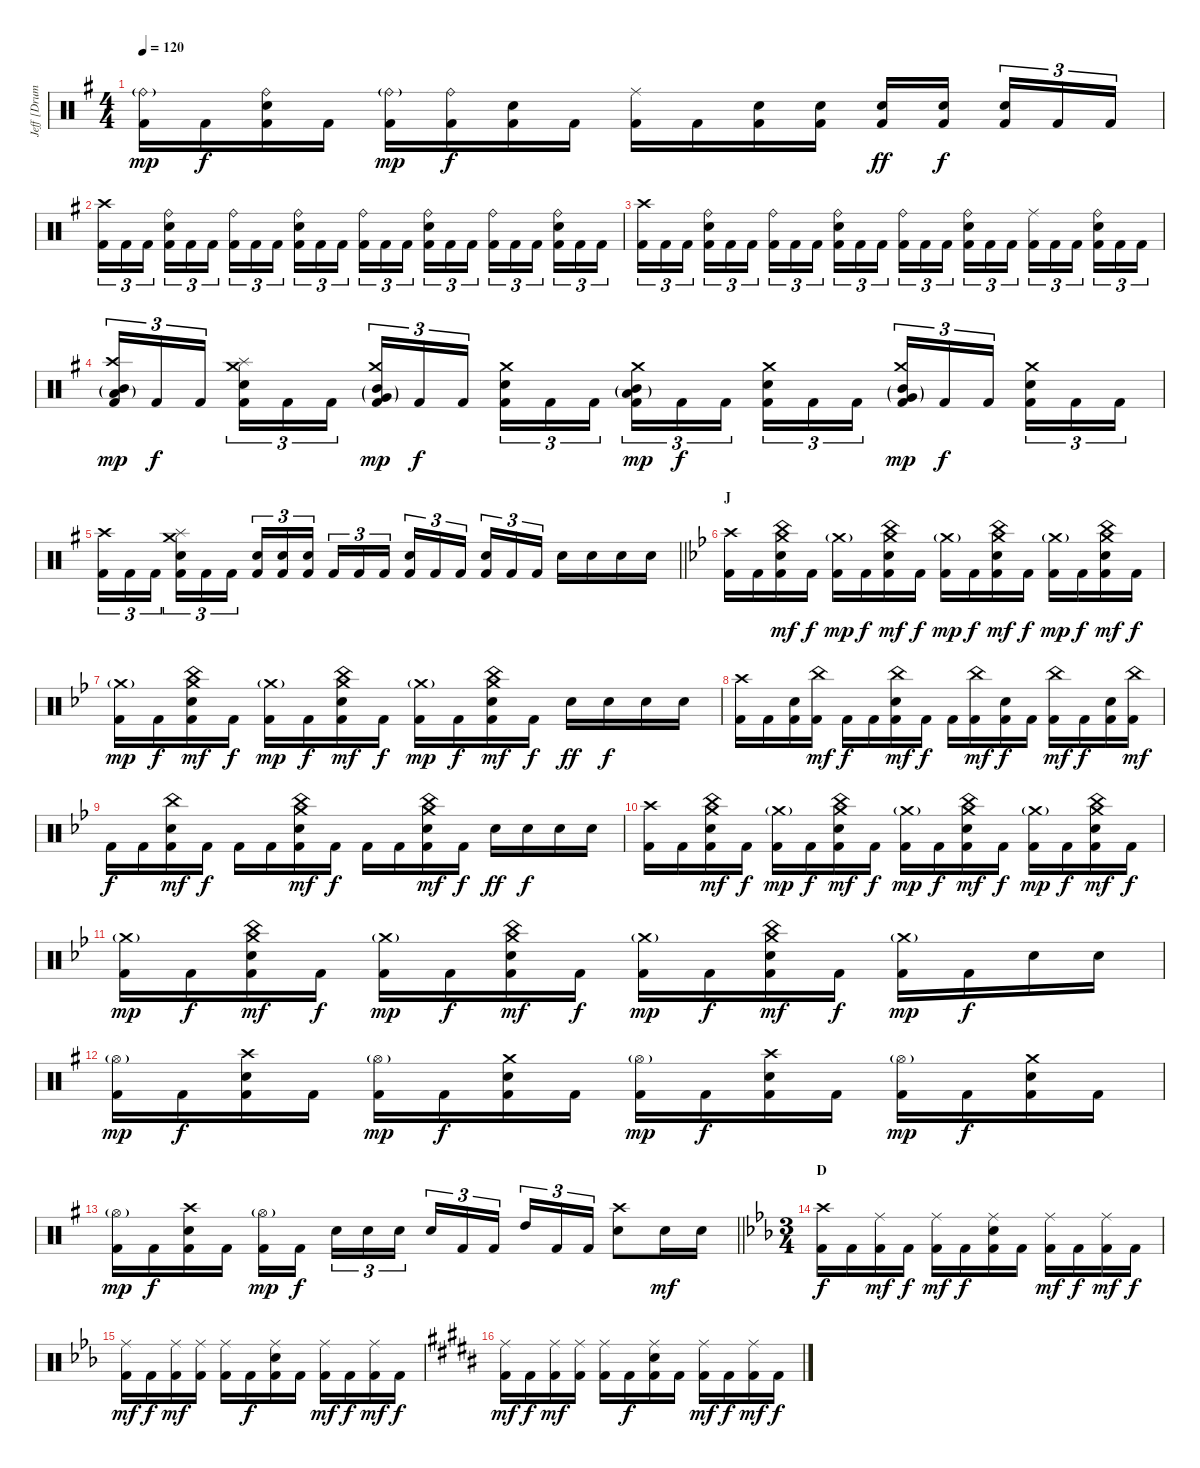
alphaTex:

\track ("Jeff [Drums]" "Jeff [Drum") {instrument percussion}
\staff {score}
\articulation defaults
\ts (4 4)
\tempo 120
\clef neutral
\ks g
("Ride (bell)"{g} "Kick (hit) 2").16{dy mp} "Kick (hit) 2".16{dy f} ("Ride (bell)" "Electric Snare (hit)" "Kick (hit) 2").16 "Kick (hit) 2".16 ("Ride (bell)"{g} "Kick (hit) 2").16{dy mp} ("Ride (bell)" "Kick (hit) 2").16{dy f} ("Electric Snare (hit)" "Kick (hit) 2").16 "Kick (hit) 2".16 ("Ride (middle)" "Kick (hit) 2").16 "Kick (hit) 2".16 ("Electric Snare (hit)" "Kick (hit) 2").16 ("Electric Snare (hit)" "Kick (hit) 2").16 ("Electric Snare (hit)" "Kick (hit) 2").16{dy ff} ("Electric Snare (hit)" "Kick (hit) 2").16{dy f beam splitsecondary} ("Electric Snare (hit)" "Kick (hit) 2").16{tu (3 2)} "Kick (hit) 2".16{tu (3 2)} "Kick (hit) 2".16{tu (3 2)} |
("Crash high (hit)" "Kick (hit) 2").16{tu (3 2)} "Kick (hit) 2".16{tu (3 2)} "Kick (hit) 2".16{tu (3 2) beam splitsecondary} ("Ride (bell)" "Electric Snare (hit)" "Kick (hit) 2").16{tu (3 2)} "Kick (hit) 2".16{tu (3 2)} "Kick (hit) 2".16{tu (3 2)} ("Ride (bell)" "Kick (hit) 2").16{tu (3 2)} "Kick (hit) 2".16{tu (3 2)} "Kick (hit) 2".16{tu (3 2) beam splitsecondary} ("Ride (bell)" "Electric Snare (hit)" "Kick (hit) 2").16{tu (3 2)} "Kick (hit) 2".16{tu (3 2)} "Kick (hit) 2".16{tu (3 2)} ("Ride (bell)" "Kick (hit) 2").16{tu (3 2)} "Kick (hit) 2".16{tu (3 2)} "Kick (hit) 2".16{tu (3 2) beam splitsecondary} ("Ride (bell)" "Electric Snare (hit)" "Kick (hit) 2").16{tu (3 2)} "Kick (hit) 2".16{tu (3 2)} "Kick (hit) 2".16{tu (3 2)} ("Ride (bell)" "Kick (hit) 2").16{tu (3 2)} "Kick (hit) 2".16{tu (3 2)} "Kick (hit) 2".16{tu (3 2) beam splitsecondary} ("Ride (bell)" "Electric Snare (hit)" "Kick (hit) 2").16{tu (3 2)} "Kick (hit) 2".16{tu (3 2)} "Kick (hit) 2".16{tu (3 2)} |
("Crash high (hit)" "Kick (hit) 2").16{tu (3 2)} "Kick (hit) 2".16{tu (3 2)} "Kick (hit) 2".16{tu (3 2) beam splitsecondary} ("Ride (bell)" "Electric Snare (hit)" "Kick (hit) 2").16{tu (3 2)} "Kick (hit) 2".16{tu (3 2)} "Kick (hit) 2".16{tu (3 2)} ("Ride (bell)" "Kick (hit) 2").16{tu (3 2)} "Kick (hit) 2".16{tu (3 2)} "Kick (hit) 2".16{tu (3 2) beam splitsecondary} ("Ride (bell)" "Electric Snare (hit)" "Kick (hit) 2").16{tu (3 2)} "Kick (hit) 2".16{tu (3 2)} "Kick (hit) 2".16{tu (3 2)} ("Ride (bell)" "Kick (hit) 2").16{tu (3 2)} "Kick (hit) 2".16{tu (3 2)} "Kick (hit) 2".16{tu (3 2) beam splitsecondary} ("Ride (bell)" "Electric Snare (hit)" "Kick (hit) 2").16{tu (3 2)} "Kick (hit) 2".16{tu (3 2)} "Kick (hit) 2".16{tu (3 2)} ("Ride (middle)" "Kick (hit) 2").16{tu (3 2)} "Kick (hit) 2".16{tu (3 2)} "Kick (hit) 2".16{tu (3 2) beam splitsecondary} ("Ride (bell)" "Electric Snare (hit)" "Kick (hit) 2").16{tu (3 2)} "Kick (hit) 2".16{tu (3 2)} "Kick (hit) 2".16{tu (3 2)} |
("Crash high (hit)" "Mid Tom (hit)"{g} "Low Tom (hit)"{g} "Kick (hit) 2").16{tu (3 2) dy mp} "Kick (hit) 2".16{tu (3 2) dy f} "Kick (hit) 2".16{tu (3 2) beam splitsecondary} ("Crash medium (hit)" "Splash (hit)" "Electric Snare (hit)" "Kick (hit) 2").16{tu (3 2)} "Kick (hit) 2".16{tu (3 2)} "Kick (hit) 2".16{tu (3 2)} ("Crash medium (hit)" "Mid Tom (hit)"{g} "Very Low Tom (hit)"{g} "Kick (hit) 2").16{tu (3 2) dy mp} "Kick (hit) 2".16{tu (3 2) dy f} "Kick (hit) 2".16{tu (3 2) beam splitsecondary} ("Crash medium (hit)" "Electric Snare (hit)" "Kick (hit) 2").16{tu (3 2)} "Kick (hit) 2".16{tu (3 2)} "Kick (hit) 2".16{tu (3 2)} ("Crash medium (hit)" "Mid Tom (hit)"{g} "Low Tom (hit)"{g} "Kick (hit) 2").16{tu (3 2) dy mp} "Kick (hit) 2".16{tu (3 2) dy f} "Kick (hit) 2".16{tu (3 2) beam splitsecondary} ("Crash medium (hit)" "Electric Snare (hit)" "Kick (hit) 2").16{tu (3 2)} "Kick (hit) 2".16{tu (3 2)} "Kick (hit) 2".16{tu (3 2)} ("Crash medium (hit)" "Mid Tom (hit)"{g} "Very Low Tom (hit)"{g} "Kick (hit) 2").16{tu (3 2) dy mp} "Kick (hit) 2".16{tu (3 2) dy f} "Kick (hit) 2".16{tu (3 2) beam splitsecondary} ("Crash medium (hit)" "Electric Snare (hit)" "Kick (hit) 2").16{tu (3 2)} "Kick (hit) 2".16{tu (3 2)} "Kick (hit) 2".16{tu (3 2)} |
\barLineRight lightlight
("Crash high (hit)" "Kick (hit) 2").16{tu (3 2)} "Kick (hit) 2".16{tu (3 2)} "Kick (hit) 2".16{tu (3 2) beam splitsecondary} ("Crash medium (hit)" "Splash (hit)" "Electric Snare (hit)" "Kick (hit) 2").16{tu (3 2)} "Kick (hit) 2".16{tu (3 2)} "Kick (hit) 2".16{tu (3 2)} ("Electric Snare (hit)" "Kick (hit) 2").16{tu (3 2)} ("Electric Snare (hit)" "Kick (hit) 2").16{tu (3 2)} ("Electric Snare (hit)" "Kick (hit) 2").16{tu (3 2) beam splitsecondary} "Kick (hit) 2".16{tu (3 2)} "Kick (hit) 2".16{tu (3 2)} "Kick (hit) 2".16{tu (3 2)} ("Electric Snare (hit)" "Kick (hit) 2").16{tu (3 2)} "Kick (hit) 2".16{tu (3 2)} "Kick (hit) 2".16{tu (3 2) beam splitsecondary} ("Electric Snare (hit)" "Kick (hit) 2").16{tu (3 2)} "Kick (hit) 2".16{tu (3 2)} "Kick (hit) 2".16{tu (3 2)} "Electric Snare (hit)".16 "Electric Snare (hit)".16 "Electric Snare (hit)".16 "Electric Snare (hit)".16 |
\section ("" "J")
\ks bb
("Crash high (hit)" "Kick (hit) 2").16 "Kick (hit) 2".16 ("Crash medium (hit)" "China (hit)" "Electric Snare (hit)" "Kick (hit) 2").16{dy mf} "Kick (hit) 2".16{dy f} ("Crash medium (hit)"{g} "Kick (hit) 2").16{dy mp} "Kick (hit) 2".16{dy f} ("Crash medium (hit)" "China (hit)" "Electric Snare (hit)" "Kick (hit) 2").16{dy mf} "Kick (hit) 2".16{dy f} ("Crash medium (hit)"{g} "Kick (hit) 2").16{dy mp} "Kick (hit) 2".16{dy f} ("Crash medium (hit)" "China (hit)" "Electric Snare (hit)" "Kick (hit) 2").16{dy mf} "Kick (hit) 2".16{dy f} ("Crash medium (hit)"{g} "Kick (hit) 2").16{dy mp} "Kick (hit) 2".16{dy f} ("Crash medium (hit)" "China (hit)" "Electric Snare (hit)" "Kick (hit) 2").16{dy mf} "Kick (hit) 2".16{dy f} |
("Crash medium (hit)"{g} "Kick (hit) 2").16{dy mp} "Kick (hit) 2".16{dy f} ("Crash medium (hit)" "China (hit)" "Electric Snare (hit)" "Kick (hit) 2").16{dy mf} "Kick (hit) 2".16{dy f} ("Crash medium (hit)"{g} "Kick (hit) 2").16{dy mp} "Kick (hit) 2".16{dy f} ("Crash medium (hit)" "China (hit)" "Electric Snare (hit)" "Kick (hit) 2").16{dy mf} "Kick (hit) 2".16{dy f} ("Crash medium (hit)"{g} "Kick (hit) 2").16{dy mp} "Kick (hit) 2".16{dy f} ("Crash medium (hit)" "China (hit)" "Electric Snare (hit)" "Kick (hit) 2").16{dy mf} "Kick (hit) 2".16{dy f} "Electric Snare (hit)".16{dy ff} "Electric Snare (hit)".16{dy f} "Electric Snare (hit)".16 "Electric Snare (hit)".16 |
("Crash high (hit)" "Kick (hit) 2").16 "Kick (hit) 2".16 ("Electric Snare (hit)" "Kick (hit) 2").16 ("China (hit)" "Kick (hit) 2").16{dy mf} "Kick (hit) 2".16{dy f} "Kick (hit) 2".16 ("China (hit)" "Electric Snare (hit)" "Kick (hit) 2").16{dy mf} "Kick (hit) 2".16{dy f} "Kick (hit) 2".16 ("China (hit)" "Kick (hit) 2").16{dy mf} ("Electric Snare (hit)" "Kick (hit) 2").16{dy f} "Kick (hit) 2".16 ("China (hit)" "Kick (hit) 2").16{dy mf} "Kick (hit) 2".16{dy f} ("Electric Snare (hit)" "Kick (hit) 2").16 ("China (hit)" "Kick (hit) 2").16{dy mf} |
"Kick (hit) 2".16{dy f} "Kick (hit) 2".16 ("China (hit)" "Electric Snare (hit)" "Kick (hit) 2").16{dy mf} "Kick (hit) 2".16{dy f} "Kick (hit) 2".16 "Kick (hit) 2".16 ("Crash medium (hit)" "China (hit)" "Electric Snare (hit)" "Kick (hit) 2").16{dy mf} "Kick (hit) 2".16{dy f} "Kick (hit) 2".16 "Kick (hit) 2".16 ("Crash medium (hit)" "China (hit)" "Electric Snare (hit)" "Kick (hit) 2").16{dy mf} "Kick (hit) 2".16{dy f} "Electric Snare (hit)".16{dy ff} "Electric Snare (hit)".16{dy f} "Electric Snare (hit)".16 "Electric Snare (hit)".16 |
("Crash high (hit)" "Kick (hit) 2").16 "Kick (hit) 2".16 ("Crash medium (hit)" "China (hit)" "Electric Snare (hit)" "Kick (hit) 2").16{dy mf} "Kick (hit) 2".16{dy f} ("Crash medium (hit)"{g} "Kick (hit) 2").16{dy mp} "Kick (hit) 2".16{dy f} ("Crash medium (hit)" "China (hit)" "Electric Snare (hit)" "Kick (hit) 2").16{dy mf} "Kick (hit) 2".16{dy f} ("Crash medium (hit)"{g} "Kick (hit) 2").16{dy mp} "Kick (hit) 2".16{dy f} ("Crash medium (hit)" "China (hit)" "Electric Snare (hit)" "Kick (hit) 2").16{dy mf} "Kick (hit) 2".16{dy f} ("Crash medium (hit)"{g} "Kick (hit) 2").16{dy mp} "Kick (hit) 2".16{dy f} ("Crash medium (hit)" "China (hit)" "Electric Snare (hit)" "Kick (hit) 2").16{dy mf} "Kick (hit) 2".16{dy f} |
("Crash medium (hit)"{g} "Kick (hit) 2").16{dy mp} "Kick (hit) 2".16{dy f} ("Crash medium (hit)" "China (hit)" "Electric Snare (hit)" "Kick (hit) 2").16{dy mf} "Kick (hit) 2".16{dy f} ("Crash medium (hit)"{g} "Kick (hit) 2").16{dy mp} "Kick (hit) 2".16{dy f} ("Crash medium (hit)" "China (hit)" "Electric Snare (hit)" "Kick (hit) 2").16{dy mf} "Kick (hit) 2".16{dy f} ("Crash medium (hit)"{g} "Kick (hit) 2").16{dy mp} "Kick (hit) 2".16{dy f} ("Crash medium (hit)" "China (hit)" "Electric Snare (hit)" "Kick (hit) 2").16{dy mf} "Kick (hit) 2".16{dy f} ("Crash medium (hit)"{g} "Kick (hit) 2").16{dy mp} "Kick (hit) 2".16{dy f} "Electric Snare (hit)".16 "Electric Snare (hit)".16 |
\ks g
("Hi-Hat (open)"{g} "Kick (hit) 2").16{dy mp} "Kick (hit) 2".16{dy f} ("Crash high (hit)" "Electric Snare (hit)" "Kick (hit) 2").16 "Kick (hit) 2".16 ("Hi-Hat (open)"{g} "Kick (hit) 2").16{dy mp} "Kick (hit) 2".16{dy f} ("Crash medium (hit)" "Electric Snare (hit)" "Kick (hit) 2").16 "Kick (hit) 2".16 ("Hi-Hat (open)"{g} "Kick (hit) 2").16{dy mp} "Kick (hit) 2".16{dy f} ("Crash high (hit)" "Electric Snare (hit)" "Kick (hit) 2").16 "Kick (hit) 2".16 ("Hi-Hat (open)"{g} "Kick (hit) 2").16{dy mp} "Kick (hit) 2".16{dy f} ("Crash medium (hit)" "Electric Snare (hit)" "Kick (hit) 2").16 "Kick (hit) 2".16 |
\barLineRight lightlight
("Hi-Hat (open)"{g} "Kick (hit) 2").16{dy mp} "Kick (hit) 2".16{dy f} ("Crash high (hit)" "Electric Snare (hit)" "Kick (hit) 2").16 "Kick (hit) 2".16 ("Hi-Hat (open)"{g} "Kick (hit) 2").16{dy mp} "Kick (hit) 2".16{dy f beam splitsecondary} "Electric Snare (hit)".16{tu (3 2)} "Electric Snare (hit)".16{tu (3 2)} "Electric Snare (hit)".16{tu (3 2)} "Electric Snare (hit)".16{tu (3 2)} "Kick (hit) 2".16{tu (3 2)} "Kick (hit) 2".16{tu (3 2) beam splitsecondary} "High Tom (hit)".16{tu (3 2)} "Kick (hit) 2".16{tu (3 2)} "Kick (hit) 2".16{tu (3 2)} ("Crash high (hit)" "Electric Snare (hit)").8 "Electric Snare (hit)".16{dy mf} "Electric Snare (hit)".16 |
\ts (3 4)
\section ("" "D")
\ks eb
("Crash high (hit)" "Kick (hit) 2").16{dy f} "Kick (hit) 2".16 ("Ride (middle)" "Kick (hit) 2").16{dy mf} "Kick (hit) 2".16{dy f} ("Ride (middle)" "Kick (hit) 2").16{dy mf} "Kick (hit) 2".16{dy f} ("Ride (middle)" "Electric Snare (hit)" "Kick (hit) 2").16 "Kick (hit) 2".16 ("Ride (middle)" "Kick (hit) 2").16{dy mf} "Kick (hit) 2".16{dy f} ("Ride (middle)" "Kick (hit) 2").16{dy mf} "Kick (hit) 2".16{dy f} |
("Ride (middle)" "Kick (hit) 2").16{dy mf} "Kick (hit) 2".16{dy f} ("Ride (middle)" "Kick (hit) 2").16{dy mf} ("Ride (middle)" "Kick (hit) 2").16 ("Ride (middle)" "Kick (hit) 2").16 "Kick (hit) 2".16{dy f} ("Ride (middle)" "Electric Snare (hit)" "Kick (hit) 2").16 "Kick (hit) 2".16 ("Ride (middle)" "Kick (hit) 2").16{dy mf} "Kick (hit) 2".16{dy f} ("Ride (middle)" "Kick (hit) 2").16{dy mf} "Kick (hit) 2".16{dy f} |
\ks b
("Ride (middle)" "Kick (hit) 2").16{dy mf} "Kick (hit) 2".16{dy f} ("Ride (middle)" "Kick (hit) 2").16{dy mf} ("Ride (middle)" "Kick (hit) 2").16 ("Ride (middle)" "Kick (hit) 2").16 "Kick (hit) 2".16{dy f} ("Ride (middle)" "Electric Snare (hit)" "Kick (hit) 2").16 "Kick (hit) 2".16 ("Ride (middle)" "Kick (hit) 2").16{dy mf} "Kick (hit) 2".16{dy f} ("Ride (middle)" "Kick (hit) 2").16{dy mf} "Kick (hit) 2".16{dy f}
